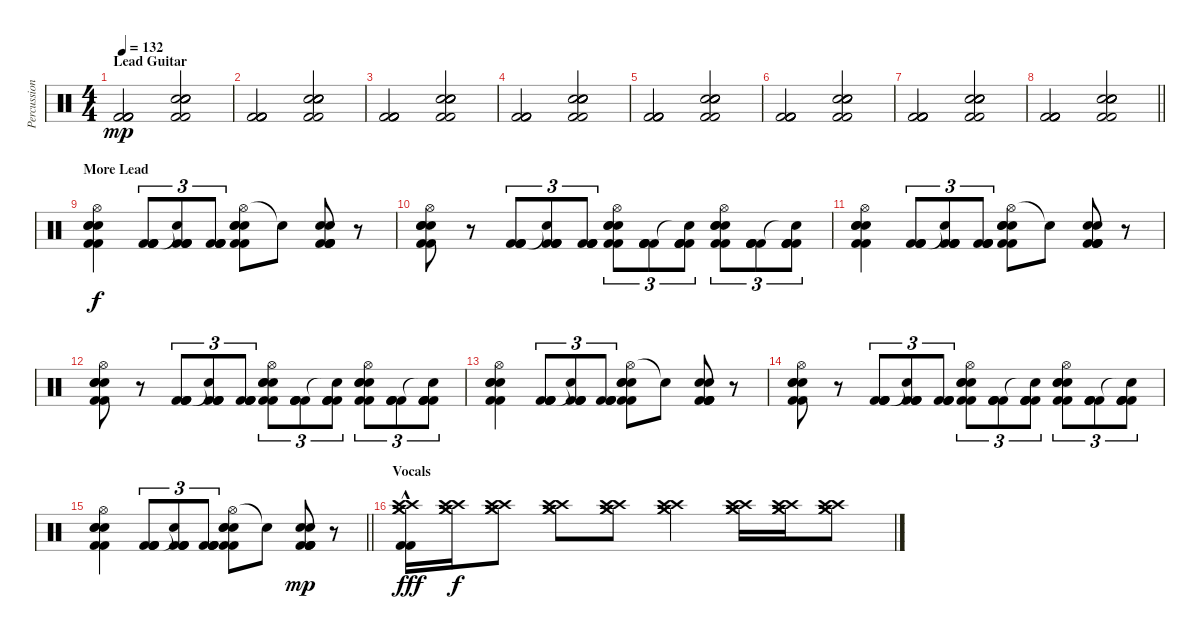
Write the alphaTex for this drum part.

\track ("Percussion" "Percussion") {instrument percussion}
\staff {score}
\articulation defaults
\ts (4 4)
\section ("" "Lead Guitar")
\tempo 132
\clef neutral
\ks c
("Kick (hit) 2" "Kick (hit) 2" "Kick (hit) 2" "Kick (hit) 2").2{dy mp} ("Electric Snare (hit)" "Electric Snare (hit)" "Snare (hit) 2" "Snare (hit) 2" "Kick (hit) 2" "Kick (hit) 2").2 |
("Kick (hit) 2" "Kick (hit) 2" "Kick (hit) 2" "Kick (hit) 2").2 ("Electric Snare (hit)" "Electric Snare (hit)" "Snare (hit) 2" "Snare (hit) 2" "Kick (hit) 2" "Kick (hit) 2").2 |
("Kick (hit) 2" "Kick (hit) 2" "Kick (hit) 2" "Kick (hit) 2").2 ("Electric Snare (hit)" "Electric Snare (hit)" "Snare (hit) 2" "Snare (hit) 2" "Kick (hit) 2" "Kick (hit) 2").2 |
("Kick (hit) 2" "Kick (hit) 2" "Kick (hit) 2" "Kick (hit) 2").2 ("Electric Snare (hit)" "Electric Snare (hit)" "Snare (hit) 2" "Snare (hit) 2" "Kick (hit) 2" "Kick (hit) 2").2 |
("Kick (hit) 2" "Kick (hit) 2" "Kick (hit) 2" "Kick (hit) 2").2 ("Electric Snare (hit)" "Electric Snare (hit)" "Snare (hit) 2" "Snare (hit) 2" "Kick (hit) 2" "Kick (hit) 2").2 |
("Kick (hit) 2" "Kick (hit) 2" "Kick (hit) 2" "Kick (hit) 2").2 ("Electric Snare (hit)" "Electric Snare (hit)" "Snare (hit) 2" "Snare (hit) 2" "Kick (hit) 2" "Kick (hit) 2").2 |
("Kick (hit) 2" "Kick (hit) 2" "Kick (hit) 2" "Kick (hit) 2").2 ("Electric Snare (hit)" "Electric Snare (hit)" "Snare (hit) 2" "Snare (hit) 2" "Kick (hit) 2" "Kick (hit) 2").2 |
\barLineRight lightlight
("Kick (hit) 2" "Kick (hit) 2" "Kick (hit) 2" "Kick (hit) 2").2 ("Electric Snare (hit)" "Electric Snare (hit)" "Snare (hit) 2" "Snare (hit) 2" "Kick (hit) 2" "Kick (hit) 2").2 |
\section ("" "More Lead")
("Hi-Hat (open)" "Electric Snare (hit)" "Snare (hit) 2" "Snare (hit) 2" "Kick (hit) 2" "Kick (hit) 2").4{dy f} ("Kick (hit) 2" "Kick (hit) 2" "Kick (hit) 2" "Kick (hit) 2").8{tu (3 2)} ("Snare (hit)"{t} "Kick (hit) 2" "Kick (hit) 2" "Kick (hit) 2" "Kick (hit) 2").8{tu (3 2)} ("Kick (hit) 2" "Kick (hit) 2" "Kick (hit) 2" "Kick (hit) 2").8{tu (3 2)} ("Hi-Hat (open)" "Electric Snare (hit)" "Snare (hit) 2" "Snare (hit) 2" "Kick (hit) 2" "Kick (hit) 2").8 "Snare (hit)"{t}.8 ("Kick (hit) 2" "Kick (hit) 2" "Snare (hit) 2" "Snare (hit) 2" "Kick (hit) 2" "Kick (hit) 2").8 r.8 |
("Hi-Hat (open)" "Electric Snare (hit)" "Snare (hit) 2" "Snare (hit) 2" "Kick (hit) 2" "Kick (hit) 2").8 r.8 ("Kick (hit) 2" "Kick (hit) 2" "Kick (hit) 2" "Kick (hit) 2").8{tu (3 2)} ("Snare (hit)"{t} "Kick (hit) 2" "Kick (hit) 2" "Kick (hit) 2" "Kick (hit) 2").8{tu (3 2)} ("Kick (hit) 2" "Kick (hit) 2" "Kick (hit) 2" "Kick (hit) 2").8{tu (3 2)} ("Hi-Hat (open)" "Electric Snare (hit)" "Snare (hit) 2" "Snare (hit) 2" "Kick (hit) 2" "Kick (hit) 2").8{tu (3 2)} ("Kick (hit) 2" "Kick (hit) 2" "Kick (hit) 2" "Kick (hit) 2").8{tu (3 2)} ("Snare (hit)"{t} "Kick (hit) 2" "Kick (hit) 2" "Kick (hit) 2" "Kick (hit) 2").8{tu (3 2)} ("Hi-Hat (open)" "Electric Snare (hit)" "Snare (hit) 2" "Snare (hit) 2" "Kick (hit) 2" "Kick (hit) 2").8{tu (3 2)} ("Kick (hit) 2" "Kick (hit) 2" "Kick (hit) 2" "Kick (hit) 2").8{tu (3 2)} ("Snare (hit)"{t} "Kick (hit) 2" "Kick (hit) 2" "Kick (hit) 2" "Kick (hit) 2").8{tu (3 2)} |
("Hi-Hat (open)" "Electric Snare (hit)" "Snare (hit) 2" "Snare (hit) 2" "Kick (hit) 2" "Kick (hit) 2").4 ("Kick (hit) 2" "Kick (hit) 2" "Kick (hit) 2" "Kick (hit) 2").8{tu (3 2)} ("Snare (hit)"{t} "Kick (hit) 2" "Kick (hit) 2" "Kick (hit) 2" "Kick (hit) 2").8{tu (3 2)} ("Kick (hit) 2" "Kick (hit) 2" "Kick (hit) 2" "Kick (hit) 2").8{tu (3 2)} ("Hi-Hat (open)" "Electric Snare (hit)" "Snare (hit) 2" "Snare (hit) 2" "Kick (hit) 2" "Kick (hit) 2").8 "Snare (hit)"{t}.8 ("Kick (hit) 2" "Kick (hit) 2" "Snare (hit) 2" "Snare (hit) 2" "Kick (hit) 2" "Kick (hit) 2").8 r.8 |
("Hi-Hat (open)" "Electric Snare (hit)" "Snare (hit) 2" "Snare (hit) 2" "Kick (hit) 2" "Kick (hit) 2").8 r.8 ("Kick (hit) 2" "Kick (hit) 2" "Kick (hit) 2" "Kick (hit) 2").8{tu (3 2)} ("Snare (hit)"{t} "Kick (hit) 2" "Kick (hit) 2" "Kick (hit) 2" "Kick (hit) 2").8{tu (3 2)} ("Kick (hit) 2" "Kick (hit) 2" "Kick (hit) 2" "Kick (hit) 2").8{tu (3 2)} ("Hi-Hat (open)" "Electric Snare (hit)" "Snare (hit) 2" "Snare (hit) 2" "Kick (hit) 2" "Kick (hit) 2").8{tu (3 2)} ("Kick (hit) 2" "Kick (hit) 2" "Kick (hit) 2" "Kick (hit) 2").8{tu (3 2)} ("Snare (hit)"{t} "Kick (hit) 2" "Kick (hit) 2" "Kick (hit) 2" "Kick (hit) 2").8{tu (3 2)} ("Hi-Hat (open)" "Electric Snare (hit)" "Snare (hit) 2" "Snare (hit) 2" "Kick (hit) 2" "Kick (hit) 2").8{tu (3 2)} ("Kick (hit) 2" "Kick (hit) 2" "Kick (hit) 2" "Kick (hit) 2").8{tu (3 2)} ("Snare (hit)"{t} "Kick (hit) 2" "Kick (hit) 2" "Kick (hit) 2" "Kick (hit) 2").8{tu (3 2)} |
("Hi-Hat (open)" "Electric Snare (hit)" "Snare (hit) 2" "Snare (hit) 2" "Kick (hit) 2" "Kick (hit) 2").4 ("Kick (hit) 2" "Kick (hit) 2" "Kick (hit) 2" "Kick (hit) 2").8{tu (3 2)} ("Snare (hit)"{t} "Kick (hit) 2" "Kick (hit) 2" "Kick (hit) 2" "Kick (hit) 2").8{tu (3 2)} ("Kick (hit) 2" "Kick (hit) 2" "Kick (hit) 2" "Kick (hit) 2").8{tu (3 2)} ("Hi-Hat (open)" "Electric Snare (hit)" "Snare (hit) 2" "Snare (hit) 2" "Kick (hit) 2" "Kick (hit) 2").8 "Snare (hit)"{t}.8 ("Kick (hit) 2" "Kick (hit) 2" "Snare (hit) 2" "Snare (hit) 2" "Kick (hit) 2" "Kick (hit) 2").8 r.8 |
("Hi-Hat (open)" "Electric Snare (hit)" "Snare (hit) 2" "Snare (hit) 2" "Kick (hit) 2" "Kick (hit) 2").8 r.8 ("Kick (hit) 2" "Kick (hit) 2" "Kick (hit) 2" "Kick (hit) 2").8{tu (3 2)} ("Snare (hit)"{t} "Kick (hit) 2" "Kick (hit) 2" "Kick (hit) 2" "Kick (hit) 2").8{tu (3 2)} ("Kick (hit) 2" "Kick (hit) 2" "Kick (hit) 2" "Kick (hit) 2").8{tu (3 2)} ("Hi-Hat (open)" "Electric Snare (hit)" "Snare (hit) 2" "Snare (hit) 2" "Kick (hit) 2" "Kick (hit) 2").8{tu (3 2)} ("Kick (hit) 2" "Kick (hit) 2" "Kick (hit) 2" "Kick (hit) 2").8{tu (3 2)} ("Snare (hit)"{t} "Kick (hit) 2" "Kick (hit) 2" "Kick (hit) 2" "Kick (hit) 2").8{tu (3 2)} ("Hi-Hat (open)" "Electric Snare (hit)" "Snare (hit) 2" "Snare (hit) 2" "Kick (hit) 2" "Kick (hit) 2").8{tu (3 2)} ("Kick (hit) 2" "Kick (hit) 2" "Kick (hit) 2" "Kick (hit) 2").8{tu (3 2)} ("Snare (hit)"{t} "Kick (hit) 2" "Kick (hit) 2" "Kick (hit) 2" "Kick (hit) 2").8{tu (3 2)} |
\barLineRight lightlight
("Hi-Hat (open)" "Electric Snare (hit)" "Snare (hit) 2" "Snare (hit) 2" "Kick (hit) 2" "Kick (hit) 2").4 ("Kick (hit) 2" "Kick (hit) 2" "Kick (hit) 2" "Kick (hit) 2").8{tu (3 2)} ("Snare (hit)"{t} "Kick (hit) 2" "Kick (hit) 2" "Kick (hit) 2" "Kick (hit) 2").8{tu (3 2)} ("Kick (hit) 2" "Kick (hit) 2" "Kick (hit) 2" "Kick (hit) 2").8{tu (3 2)} ("Hi-Hat (open)" "Electric Snare (hit)" "Snare (hit) 2" "Snare (hit) 2" "Kick (hit) 2" "Kick (hit) 2").8 "Snare (hit)"{t}.8 ("Kick (hit) 2" "Kick (hit) 2" "Snare (hit) 2" "Snare (hit) 2" "Kick (hit) 2" "Kick (hit) 2").8{dy mp} r.8 |
\section ("" "Vocals")
("Kick (hit) 2"{hac} "Crash high (hit)"{hac} "Crash high (hit)"{hac} "Crash medium (hit)"{hac} "Crash medium (hit)"{hac} "Kick (hit) 2"{hac}).16{dy fff} ("Crash high (hit)" "Crash high (hit)" "Crash medium (hit)" "Crash medium (hit)").16{dy f} ("Crash high (hit)" "Crash high (hit)" "Crash medium (hit)" "Crash medium (hit)").8 ("Crash high (hit)" "Crash high (hit)" "Crash medium (hit)" "Crash medium (hit)").8 ("Crash high (hit)" "Crash high (hit)" "Crash medium (hit)" "Crash medium (hit)").8 ("Crash high (hit)" "Crash high (hit)" "Crash medium (hit)" "Crash medium (hit)").4 ("Crash high (hit)" "Crash high (hit)" "Crash medium (hit)" "Crash medium (hit)").16 ("Crash high (hit)" "Crash high (hit)" "Crash medium (hit)" "Crash medium (hit)").16 ("Crash high (hit)" "Crash high (hit)" "Crash medium (hit)" "Crash medium (hit)").8
